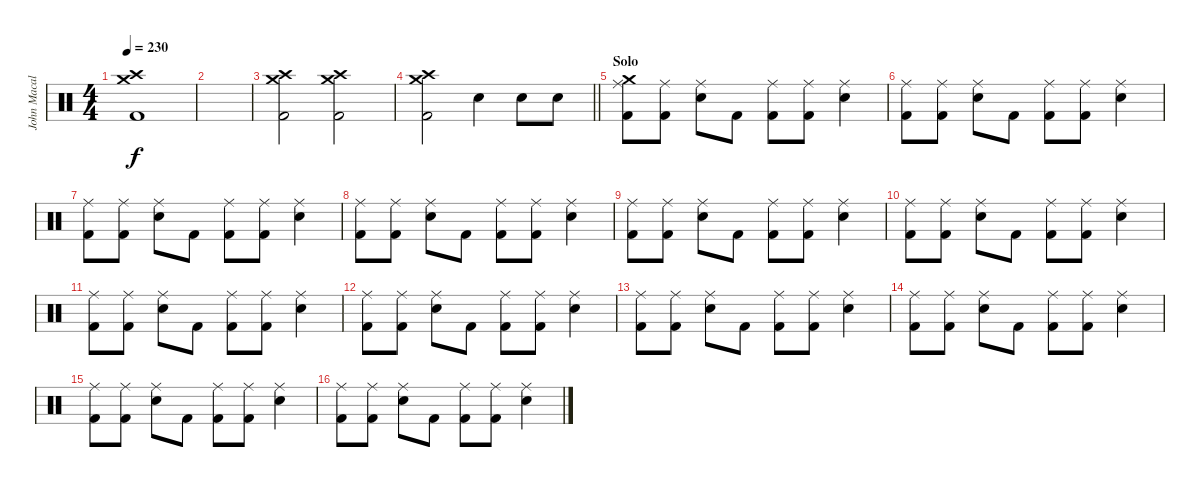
\track ("John Macaluso" "John Macal") {instrument percussion}
\staff {score}
\articulation defaults
\ts (4 4)
\tempo 230
\clef neutral
\ks c
("Crash medium (hit)" "Crash high (hit)" "Kick (hit) 2").1{dy f} |
|
("Crash medium (hit)" "Crash high (hit)" "Kick (hit) 2").2 ("Crash medium (hit)" "Crash high (hit)" "Kick (hit) 2").2 |
\barLineRight lightlight
("Crash medium (hit)" "Crash high (hit)" "Kick (hit) 2").2 "Snare (hit) 2".4 "Snare (hit) 2".8 "Snare (hit) 2".8 |
\section ("" "Solo")
("Crash medium (hit)" "Ride (middle)" "Kick (hit) 2").8 ("Ride (middle)" "Kick (hit) 2").8 ("Ride (middle)" "Snare (hit) 2").8 "Kick (hit) 2".8 ("Ride (middle)" "Kick (hit) 2").8 ("Ride (middle)" "Kick (hit) 2").8 ("Ride (middle)" "Snare (hit) 2").4 |
("Ride (middle)" "Kick (hit) 2").8 ("Ride (middle)" "Kick (hit) 2").8 ("Ride (middle)" "Snare (hit) 2").8 "Kick (hit) 2".8 ("Ride (middle)" "Kick (hit) 2").8 ("Ride (middle)" "Kick (hit) 2").8 ("Ride (middle)" "Snare (hit) 2").4 |
("Ride (middle)" "Kick (hit) 2").8 ("Ride (middle)" "Kick (hit) 2").8 ("Ride (middle)" "Snare (hit) 2").8 "Kick (hit) 2".8 ("Ride (middle)" "Kick (hit) 2").8 ("Ride (middle)" "Kick (hit) 2").8 ("Ride (middle)" "Snare (hit) 2").4 |
("Ride (middle)" "Kick (hit) 2").8 ("Ride (middle)" "Kick (hit) 2").8 ("Ride (middle)" "Snare (hit) 2").8 "Kick (hit) 2".8 ("Ride (middle)" "Kick (hit) 2").8 ("Ride (middle)" "Kick (hit) 2").8 ("Ride (middle)" "Snare (hit) 2").4 |
("Ride (middle)" "Kick (hit) 2").8 ("Ride (middle)" "Kick (hit) 2").8 ("Ride (middle)" "Snare (hit) 2").8 "Kick (hit) 2".8 ("Ride (middle)" "Kick (hit) 2").8 ("Ride (middle)" "Kick (hit) 2").8 ("Ride (middle)" "Snare (hit) 2").4 |
("Ride (middle)" "Kick (hit) 2").8 ("Ride (middle)" "Kick (hit) 2").8 ("Ride (middle)" "Snare (hit) 2").8 "Kick (hit) 2".8 ("Ride (middle)" "Kick (hit) 2").8 ("Ride (middle)" "Kick (hit) 2").8 ("Ride (middle)" "Snare (hit) 2").4 |
("Ride (middle)" "Kick (hit) 2").8 ("Ride (middle)" "Kick (hit) 2").8 ("Ride (middle)" "Snare (hit) 2").8 "Kick (hit) 2".8 ("Ride (middle)" "Kick (hit) 2").8 ("Ride (middle)" "Kick (hit) 2").8 ("Ride (middle)" "Snare (hit) 2").4 |
("Ride (middle)" "Kick (hit) 2").8 ("Ride (middle)" "Kick (hit) 2").8 ("Ride (middle)" "Snare (hit) 2").8 "Kick (hit) 2".8 ("Ride (middle)" "Kick (hit) 2").8 ("Ride (middle)" "Kick (hit) 2").8 ("Ride (middle)" "Snare (hit) 2").4 |
("Ride (middle)" "Kick (hit) 2").8 ("Ride (middle)" "Kick (hit) 2").8 ("Ride (middle)" "Snare (hit) 2").8 "Kick (hit) 2".8 ("Ride (middle)" "Kick (hit) 2").8 ("Ride (middle)" "Kick (hit) 2").8 ("Ride (middle)" "Snare (hit) 2").4 |
("Ride (middle)" "Kick (hit) 2").8 ("Ride (middle)" "Kick (hit) 2").8 ("Ride (middle)" "Snare (hit) 2").8 "Kick (hit) 2".8 ("Ride (middle)" "Kick (hit) 2").8 ("Ride (middle)" "Kick (hit) 2").8 ("Ride (middle)" "Snare (hit) 2").4 |
("Ride (middle)" "Kick (hit) 2").8 ("Ride (middle)" "Kick (hit) 2").8 ("Ride (middle)" "Snare (hit) 2").8 "Kick (hit) 2".8 ("Ride (middle)" "Kick (hit) 2").8 ("Ride (middle)" "Kick (hit) 2").8 ("Ride (middle)" "Snare (hit) 2").4 |
("Ride (middle)" "Kick (hit) 2").8 ("Ride (middle)" "Kick (hit) 2").8 ("Ride (middle)" "Snare (hit) 2").8 "Kick (hit) 2".8 ("Ride (middle)" "Kick (hit) 2").8 ("Ride (middle)" "Kick (hit) 2").8 ("Ride (middle)" "Snare (hit) 2").4
